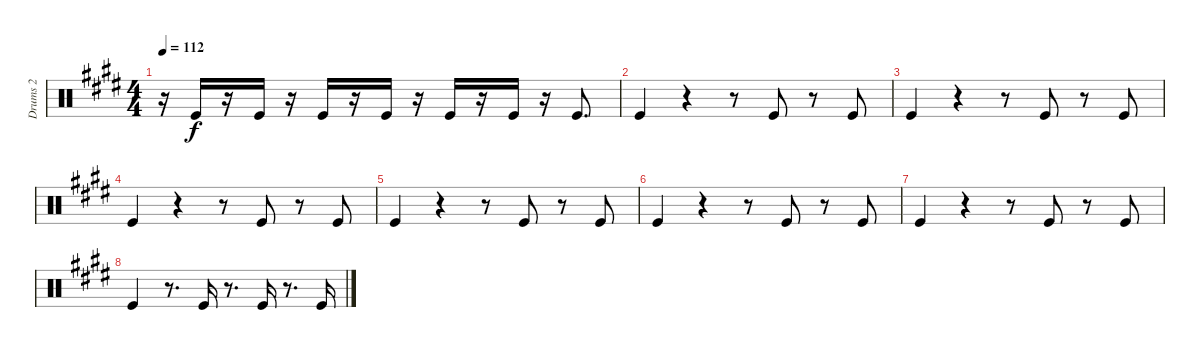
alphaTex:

\track ("Drums 2" "Drums 2") {instrument percussion}
\staff {score}
\articulation defaults
\ts (4 4)
\tempo 112
\clef neutral
\ks e
r.16{dy f} "Kick (hit)".16 r.16 "Kick (hit)".16 r.16 "Kick (hit)".16 r.16 "Kick (hit)".16 r.16 "Kick (hit)".16 r.16 "Kick (hit)".16 r.16 "Kick (hit)".8{d} |
"Kick (hit)".4 r.4 r.8 "Kick (hit)".8 r.8 "Kick (hit)".8 |
"Kick (hit)".4 r.4 r.8 "Kick (hit)".8 r.8 "Kick (hit)".8 |
"Kick (hit)".4 r.4 r.8 "Kick (hit)".8 r.8 "Kick (hit)".8 |
"Kick (hit)".4 r.4 r.8 "Kick (hit)".8 r.8 "Kick (hit)".8 |
"Kick (hit)".4 r.4 r.8 "Kick (hit)".8 r.8 "Kick (hit)".8 |
"Kick (hit)".4 r.4 r.8 "Kick (hit)".8 r.8 "Kick (hit)".8 |
"Kick (hit)".4 r.8{d} "Kick (hit)".16 r.8{d} "Kick (hit)".16 r.8{d} "Kick (hit)".16
